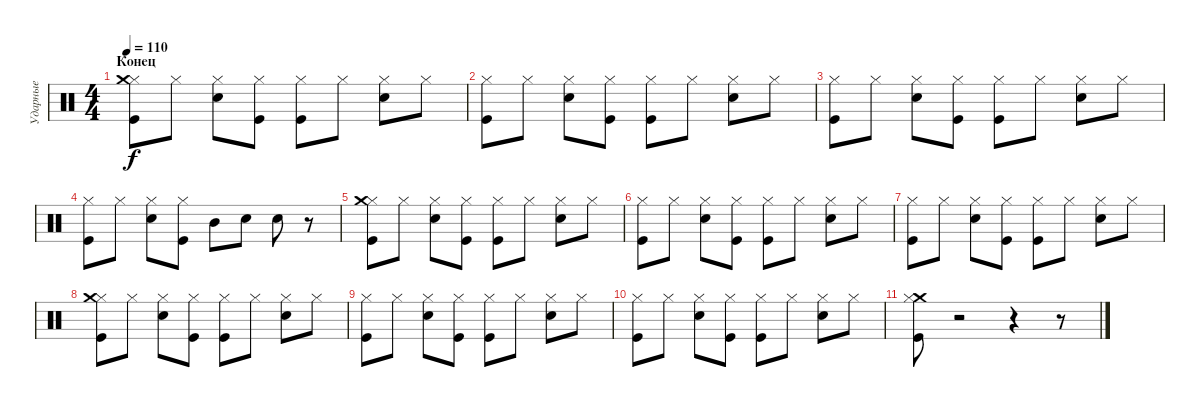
\track ("Ударные" "Ударные") {instrument percussion}
\staff {score}
\articulation defaults
\ts (4 4)
\section ("" "Конец")
\tempo 110
\clef neutral
\ks c
("Kick (hit)" "Hi-Hat (closed)" "Crash medium (hit)").8{dy f} "Hi-Hat (closed)".8 ("Snare (hit) 2" "Hi-Hat (closed)").8 ("Kick (hit)" "Hi-Hat (closed)").8 ("Hi-Hat (closed)" "Kick (hit)").8 "Hi-Hat (closed)".8 ("Snare (hit) 2" "Hi-Hat (closed)").8 "Hi-Hat (closed)".8 |
("Kick (hit)" "Hi-Hat (closed)").8 "Hi-Hat (closed)".8 ("Snare (hit) 2" "Hi-Hat (closed)").8 ("Kick (hit)" "Hi-Hat (closed)").8 ("Hi-Hat (closed)" "Kick (hit)").8 "Hi-Hat (closed)".8 ("Snare (hit) 2" "Hi-Hat (closed)").8 "Hi-Hat (closed)".8 |
("Kick (hit)" "Hi-Hat (closed)").8 "Hi-Hat (closed)".8 ("Snare (hit) 2" "Hi-Hat (closed)").8 ("Kick (hit)" "Hi-Hat (closed)").8 ("Hi-Hat (closed)" "Kick (hit)").8 "Hi-Hat (closed)".8 ("Snare (hit) 2" "Hi-Hat (closed)").8 "Hi-Hat (closed)".8 |
("Kick (hit)" "Hi-Hat (closed)").8 "Hi-Hat (closed)".8 ("Snare (hit) 2" "Hi-Hat (closed)").8 ("Kick (hit)" "Hi-Hat (closed)").8 "Mid Tom (hit)".8 "Snare (hit) 2".8 "Snare (hit) 2".8 r.8 |
("Kick (hit)" "Hi-Hat (closed)" "Crash medium (hit)").8 "Hi-Hat (closed)".8 ("Snare (hit) 2" "Hi-Hat (closed)").8 ("Kick (hit)" "Hi-Hat (closed)").8 ("Hi-Hat (closed)" "Kick (hit)").8 "Hi-Hat (closed)".8 ("Snare (hit) 2" "Hi-Hat (closed)").8 "Hi-Hat (closed)".8 |
("Kick (hit)" "Hi-Hat (closed)").8 "Hi-Hat (closed)".8 ("Snare (hit) 2" "Hi-Hat (closed)").8 ("Kick (hit)" "Hi-Hat (closed)").8 ("Hi-Hat (closed)" "Kick (hit)").8 "Hi-Hat (closed)".8 ("Snare (hit) 2" "Hi-Hat (closed)").8 "Hi-Hat (closed)".8 |
("Kick (hit)" "Hi-Hat (closed)").8 "Hi-Hat (closed)".8 ("Snare (hit) 2" "Hi-Hat (closed)").8 ("Kick (hit)" "Hi-Hat (closed)").8 ("Hi-Hat (closed)" "Kick (hit)").8 "Hi-Hat (closed)".8 ("Snare (hit) 2" "Hi-Hat (closed)").8 "Hi-Hat (closed)".8 |
("Kick (hit)" "Hi-Hat (closed)" "Crash medium (hit)").8 "Hi-Hat (closed)".8 ("Snare (hit) 2" "Hi-Hat (closed)").8 ("Kick (hit)" "Hi-Hat (closed)").8 ("Hi-Hat (closed)" "Kick (hit)").8 "Hi-Hat (closed)".8 ("Snare (hit) 2" "Hi-Hat (closed)").8 "Hi-Hat (closed)".8 |
("Kick (hit)" "Hi-Hat (closed)").8 "Hi-Hat (closed)".8 ("Snare (hit) 2" "Hi-Hat (closed)").8 ("Kick (hit)" "Hi-Hat (closed)").8 ("Hi-Hat (closed)" "Kick (hit)").8 "Hi-Hat (closed)".8 ("Snare (hit) 2" "Hi-Hat (closed)").8 "Hi-Hat (closed)".8 |
("Kick (hit)" "Hi-Hat (closed)").8 "Hi-Hat (closed)".8 ("Snare (hit) 2" "Hi-Hat (closed)").8 ("Kick (hit)" "Hi-Hat (closed)").8 ("Hi-Hat (closed)" "Kick (hit)").8 "Hi-Hat (closed)".8 ("Snare (hit) 2" "Hi-Hat (closed)").8 "Hi-Hat (closed)".8 |
("Kick (hit)" "Crash medium (hit)" "Hi-Hat (closed)").8 r.2 r.4 r.8
